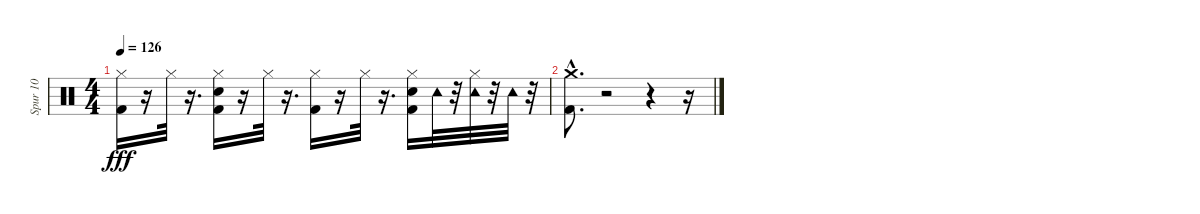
\track ("Spur 10" "Spur 10") {instrument percussion}
\staff {score}
\articulation defaults
\ts (4 4)
\tempo 126
\clef neutral
\ks c
("Hi-Hat (closed)" "Kick (hit) 2").16{dy fff} r.16 "Hi-Hat (closed)".32 r.16{d} ("Hi-Hat (closed)" "Snare (hit) 2" "Kick (hit) 2").16 r.16 "Hi-Hat (closed)".32 r.16{d} ("Hi-Hat (closed)" "Kick (hit) 2").16 r.16 "Hi-Hat (closed)".32 r.16{d} ("Hi-Hat (closed)" "Snare (hit) 2" "Kick (hit) 2").16 "Tambourine (hit)".32 r.32 ("Hi-Hat (closed)" "Tambourine (hit)").32 r.32 "Tambourine (hit)".32 r.32 |
("Crash medium (hit)"{hac} "Kick (hit) 2").8{d} r.2 r.4 r.16
